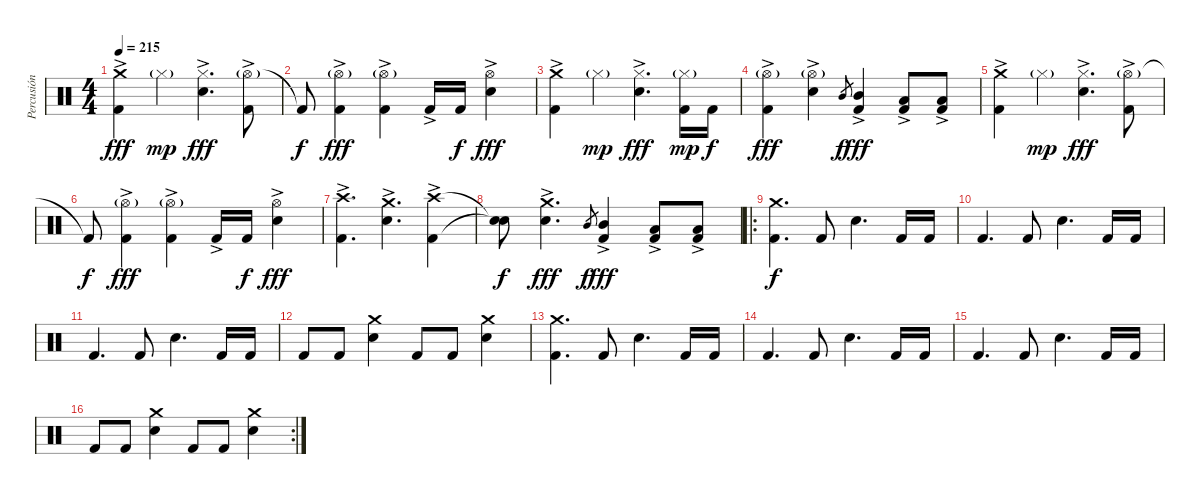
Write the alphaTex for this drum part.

\track ("Percusión" "Percusión") {instrument percussion}
\staff {score}
\articulation defaults
\ts (4 4)
\tempo 215
\clef neutral
\ks c
("Crash medium (hit)" "Kick (hit) 2"{ac}).4{dy fff} "Hi-Hat (closed)"{g}.4{dy mp} ("Hi-Hat (closed)" "Snare (hit) 2"{ac}).4{d dy fff} ("Hi-Hat (open)"{g} "Kick (hit) 2"{ac}).8 |
"Kick (hit) 2"{t}.8{dy f} ("Hi-Hat (open)"{g} "Kick (hit) 2"{ac}).4{dy fff} ("Hi-Hat (open)"{g} "Kick (hit) 2"{ac}).4 "Kick (hit) 2"{ac}.16 "Kick (hit) 2".16{dy f} ("Hi-Hat (open)" "Snare (hit) 2"{ac}).4{dy fff} |
("Crash medium (hit)" "Kick (hit) 2"{ac}).4 "Hi-Hat (closed)"{g}.4{dy mp} ("Hi-Hat (closed)" "Snare (hit) 2"{ac}).4{d dy fff} ("Hi-Hat (closed)"{g} "Kick (hit) 2").16{dy mp} "Kick (hit) 2".16{dy f} |
("Hi-Hat (open)"{g} "Kick (hit) 2"{ac}).4{dy fff} ("Hi-Hat (open)"{g} "Snare (hit) 2"{ac}).4 "Mid Tom (hit)".8{gr dy f} ("Mid Tom (hit)" "Kick (hit) 2"{ac}).4{dy fff} ("Low Tom (hit)" "Kick (hit) 2"{ac}).8 ("Low Tom (hit)" "Kick (hit) 2"{ac}).8 |
("Crash medium (hit)" "Kick (hit) 2"{ac}).4 "Hi-Hat (closed)"{g}.4{dy mp} ("Hi-Hat (closed)" "Snare (hit) 2"{ac}).4{d dy fff} ("Hi-Hat (open)"{g} "Kick (hit) 2"{ac}).8 |
"Kick (hit) 2"{t}.8{dy f} ("Hi-Hat (open)"{g} "Kick (hit) 2"{ac}).4{dy fff} ("Hi-Hat (open)"{g} "Kick (hit) 2"{ac}).4 "Kick (hit) 2"{ac}.16 "Kick (hit) 2".16{dy f} ("Hi-Hat (open)" "Snare (hit) 2"{ac}).4{dy fff} |
("Crash high (hit)" "Kick (hit) 2"{ac}).4{d} ("Crash medium (hit)" "Snare (hit) 2"{ac}).4{d} ("Crash high (hit)" "Kick (hit) 2"{ac}).4 |
("Snare (hit)"{t} "Snare (hit)"{t}).8{dy f} ("Crash medium (hit)" "Snare (hit) 2"{ac}).4{d dy fff} "Mid Tom (hit)".8{gr dy f} ("Mid Tom (hit)"{ac} "Kick (hit) 2").4{dy fff} ("Low Tom (hit)"{ac} "Kick (hit) 2").8 ("Low Tom (hit)"{ac} "Kick (hit) 2").8 |
\ro
("Crash medium (hit)" "Kick (hit) 2").4{d dy f} "Kick (hit) 2".8 "Snare (hit) 2".4{d} "Kick (hit) 2".16 "Kick (hit) 2".16 |
"Kick (hit) 2".4{d} "Kick (hit) 2".8 "Snare (hit) 2".4{d} "Kick (hit) 2".16 "Kick (hit) 2".16 |
"Kick (hit) 2".4{d} "Kick (hit) 2".8 "Snare (hit) 2".4{d} "Kick (hit) 2".16 "Kick (hit) 2".16 |
"Kick (hit) 2".8 "Kick (hit) 2".8 ("Crash medium (hit)" "Snare (hit) 2").4 "Kick (hit) 2".8 "Kick (hit) 2".8 ("Crash medium (hit)" "Snare (hit) 2").4 |
("Crash medium (hit)" "Kick (hit) 2").4{d} "Kick (hit) 2".8 "Snare (hit) 2".4{d} "Kick (hit) 2".16 "Kick (hit) 2".16 |
"Kick (hit) 2".4{d} "Kick (hit) 2".8 "Snare (hit) 2".4{d} "Kick (hit) 2".16 "Kick (hit) 2".16 |
"Kick (hit) 2".4{d} "Kick (hit) 2".8 "Snare (hit) 2".4{d} "Kick (hit) 2".16 "Kick (hit) 2".16 |
\rc 2 "Kick (hit) 2".8 "Kick (hit) 2".8
("Crash medium (hit)" "Snare (hit) 2").4 "Kick (hit) 2".8 "Kick (hit) 2".8 ("Crash medium (hit)" "Snare (hit) 2").4
